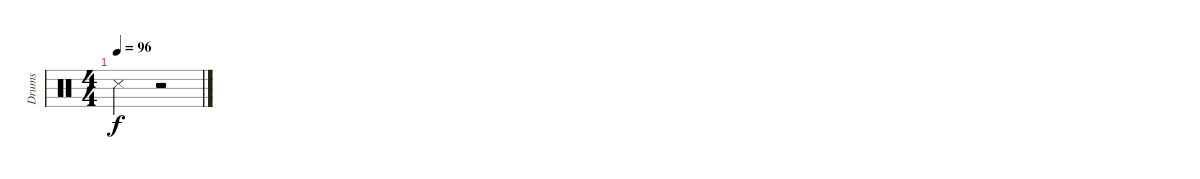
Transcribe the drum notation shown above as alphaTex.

\track ("Drums" "Drums") {instrument percussion}
\staff {score}
\articulation defaults
\ts (4 4)
\tempo 96
\clef neutral
\ks c "Metronome (hit)".2{dy f}
r.2
